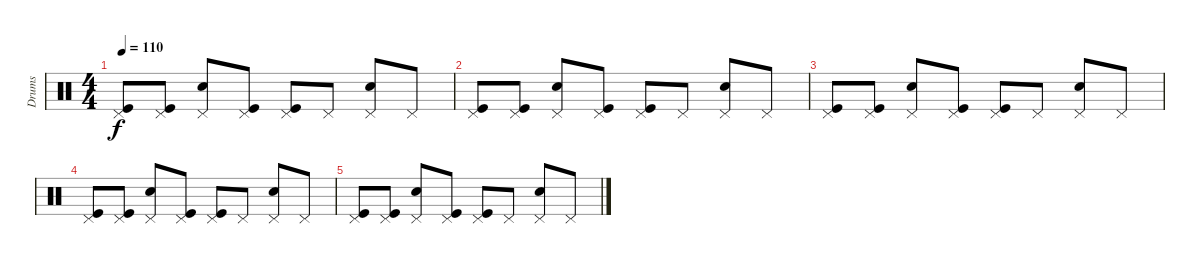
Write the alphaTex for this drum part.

\track ("Drums" "Drums") {instrument percussion}
\staff {score}
\articulation defaults
\ts (4 4)
\tempo 110
\clef neutral
\ks c
("Pedal Hi-Hat (hit)" "Kick (hit)").8{dy f} ("Pedal Hi-Hat (hit)" "Kick (hit)").8 ("Pedal Hi-Hat (hit)" "Electric Snare (hit)").8 ("Pedal Hi-Hat (hit)" "Kick (hit)").8 ("Pedal Hi-Hat (hit)" "Kick (hit)").8 "Pedal Hi-Hat (hit)".8 ("Pedal Hi-Hat (hit)" "Electric Snare (hit)").8 "Pedal Hi-Hat (hit)".8 |
("Pedal Hi-Hat (hit)" "Kick (hit)").8 ("Pedal Hi-Hat (hit)" "Kick (hit)").8 ("Pedal Hi-Hat (hit)" "Electric Snare (hit)").8 ("Pedal Hi-Hat (hit)" "Kick (hit)").8 ("Pedal Hi-Hat (hit)" "Kick (hit)").8 "Pedal Hi-Hat (hit)".8 ("Pedal Hi-Hat (hit)" "Electric Snare (hit)").8 "Pedal Hi-Hat (hit)".8 |
("Pedal Hi-Hat (hit)" "Kick (hit)").8{volume 0} ("Pedal Hi-Hat (hit)" "Kick (hit)").8 ("Pedal Hi-Hat (hit)" "Electric Snare (hit)").8 ("Pedal Hi-Hat (hit)" "Kick (hit)").8 ("Pedal Hi-Hat (hit)" "Kick (hit)").8 "Pedal Hi-Hat (hit)".8 ("Pedal Hi-Hat (hit)" "Electric Snare (hit)").8 "Pedal Hi-Hat (hit)".8 |
("Pedal Hi-Hat (hit)" "Kick (hit)").8 ("Pedal Hi-Hat (hit)" "Kick (hit)").8 ("Pedal Hi-Hat (hit)" "Electric Snare (hit)").8 ("Pedal Hi-Hat (hit)" "Kick (hit)").8 ("Pedal Hi-Hat (hit)" "Kick (hit)").8 "Pedal Hi-Hat (hit)".8 ("Pedal Hi-Hat (hit)" "Electric Snare (hit)").8 "Pedal Hi-Hat (hit)".8 |
("Pedal Hi-Hat (hit)" "Kick (hit)").8 ("Pedal Hi-Hat (hit)" "Kick (hit)").8 ("Pedal Hi-Hat (hit)" "Electric Snare (hit)").8 ("Pedal Hi-Hat (hit)" "Kick (hit)").8 ("Pedal Hi-Hat (hit)" "Kick (hit)").8 "Pedal Hi-Hat (hit)".8 ("Pedal Hi-Hat (hit)" "Electric Snare (hit)").8 "Pedal Hi-Hat (hit)".8
